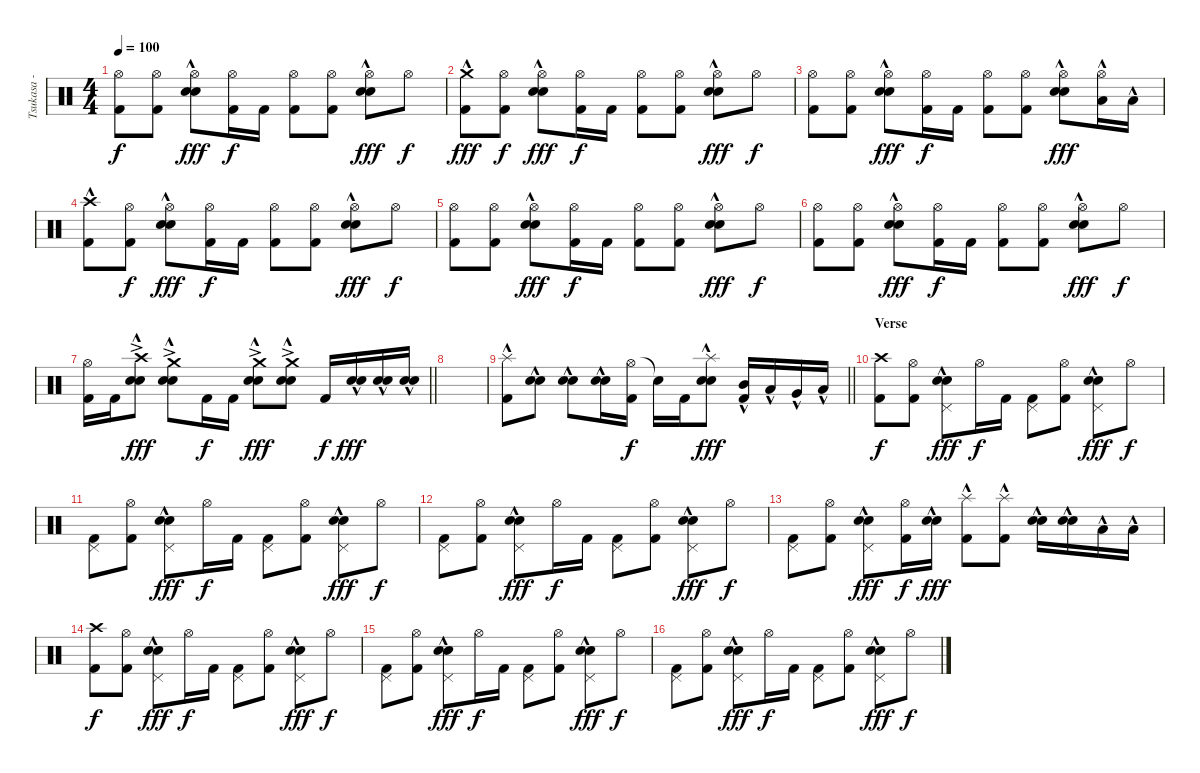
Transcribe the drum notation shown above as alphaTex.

\track ("Tsukasa - Drums" "Tsukasa - ") {instrument percussion}
\staff {score}
\articulation defaults
\ts (4 4)
\tempo 100
\clef neutral
\ks c
("Hi-Hat (open)" "Kick (hit) 2").8{dy f} ("Hi-Hat (open)" "Kick (hit) 2").8 ("Hi-Hat (open)" "Electric Snare (hit)"{hac} "Snare (hit) 2"{hac}).8{dy fff} ("Hi-Hat (open)" "Kick (hit) 2").16{dy f} "Kick (hit) 2".16 ("Hi-Hat (open)" "Kick (hit) 2").8 ("Hi-Hat (open)" "Kick (hit) 2").8 ("Hi-Hat (open)" "Electric Snare (hit)"{hac} "Snare (hit) 2"{hac}).8{dy fff} "Hi-Hat (open)".8{dy f} |
("Crash medium (hit)"{hac} "Kick (hit) 2").8{dy fff} ("Hi-Hat (open)" "Kick (hit) 2").8{dy f} ("Hi-Hat (open)" "Electric Snare (hit)"{hac} "Snare (hit) 2"{hac}).8{dy fff} ("Hi-Hat (open)" "Kick (hit) 2").16{dy f} "Kick (hit) 2".16 ("Hi-Hat (open)" "Kick (hit) 2").8 ("Hi-Hat (open)" "Kick (hit) 2").8 ("Hi-Hat (open)" "Electric Snare (hit)"{hac} "Snare (hit) 2"{hac}).8{dy fff} "Hi-Hat (open)".8{dy f} |
("Hi-Hat (open)" "Kick (hit) 2").8 ("Hi-Hat (open)" "Kick (hit) 2").8 ("Hi-Hat (open)" "Electric Snare (hit)"{hac} "Snare (hit) 2"{hac}).8{dy fff} ("Hi-Hat (open)" "Kick (hit) 2").16{dy f} "Kick (hit) 2".16 ("Hi-Hat (open)" "Kick (hit) 2").8 ("Hi-Hat (open)" "Kick (hit) 2").8 ("Hi-Hat (open)" "Electric Snare (hit)"{hac} "Snare (hit) 2"{hac}).8{dy fff} ("Hi-Hat (open)" "Low Tom (hit)"{hac}).16 "Low Tom (hit)"{hac}.16 |
("Crash high (hit)"{hac} "Kick (hit) 2").8 ("Hi-Hat (open)" "Kick (hit) 2").8{dy f} ("Hi-Hat (open)" "Electric Snare (hit)"{hac} "Snare (hit) 2"{hac}).8{dy fff} ("Hi-Hat (open)" "Kick (hit) 2").16{dy f} "Kick (hit) 2".16 ("Hi-Hat (open)" "Kick (hit) 2").8 ("Hi-Hat (open)" "Kick (hit) 2").8 ("Hi-Hat (open)" "Electric Snare (hit)"{hac} "Snare (hit) 2"{hac}).8{dy fff} "Hi-Hat (open)".8{dy f} |
("Hi-Hat (open)" "Kick (hit) 2").8 ("Hi-Hat (open)" "Kick (hit) 2").8 ("Hi-Hat (open)" "Electric Snare (hit)"{hac} "Snare (hit) 2"{hac}).8{dy fff} ("Hi-Hat (open)" "Kick (hit) 2").16{dy f} "Kick (hit) 2".16 ("Hi-Hat (open)" "Kick (hit) 2").8 ("Hi-Hat (open)" "Kick (hit) 2").8 ("Hi-Hat (open)" "Electric Snare (hit)"{hac} "Snare (hit) 2"{hac}).8{dy fff} "Hi-Hat (open)".8{dy f} |
("Hi-Hat (open)" "Kick (hit) 2").8 ("Hi-Hat (open)" "Kick (hit) 2").8 ("Hi-Hat (open)" "Electric Snare (hit)"{hac} "Snare (hit) 2"{hac}).8{dy fff} ("Hi-Hat (open)" "Kick (hit) 2").16{dy f} "Kick (hit) 2".16 ("Hi-Hat (open)" "Kick (hit) 2").8 ("Hi-Hat (open)" "Kick (hit) 2").8 ("Hi-Hat (open)" "Electric Snare (hit)"{hac} "Snare (hit) 2"{hac}).8{dy fff} "Hi-Hat (open)".8{dy f} |
\barLineRight lightlight
("Hi-Hat (open)" "Kick (hit) 2").16 "Kick (hit) 2".16 ("Crash high (hit)"{ac} "Electric Snare (hit)"{hac} "Snare (hit) 2"{hac}).8{dy fff} ("Crash medium (hit)"{ac} "Electric Snare (hit)"{hac} "Snare (hit) 2"{hac}).8 "Kick (hit) 2".16{dy f} "Kick (hit) 2".16 ("Crash medium (hit)"{ac} "Electric Snare (hit)"{hac} "Snare (hit) 2"{hac}).8{dy fff} ("Crash medium (hit)"{ac} "Electric Snare (hit)"{hac} "Snare (hit) 2"{hac}).8 "Kick (hit) 2".16{dy f} ("Electric Snare (hit)"{hac} "Snare (hit) 2"{hac}).16{dy fff} ("Electric Snare (hit)"{hac} "Snare (hit) 2"{hac}).16 ("Electric Snare (hit)"{hac} "Snare (hit) 2"{hac}).16 |
|
\barLineRight lightlight
("Splash (hit)"{hac} "Kick (hit) 2").8 ("Electric Snare (hit)"{hac} "Snare (hit) 2"{hac}).8 ("Electric Snare (hit)"{hac} "Snare (hit) 2"{hac}).8 ("Electric Snare (hit)"{hac} "Snare (hit) 2"{hac}).16 ("Hi-Hat (open)" "Kick (hit) 2").16{dy f} "Snare (hit)"{t}.16 "Kick (hit) 2".16 ("Splash (hit)"{hac} "Electric Snare (hit)"{hac} "Snare (hit) 2"{hac}).8{dy fff} ("Mid Tom (hit)"{hac} "Kick (hit) 2").16 "Low Tom (hit)"{hac}.16 "Very Low Tom (hit)"{hac}.16 "Low Floor Tom (hit)"{hac}.16 |
\section ("" "Verse")
("Crash high (hit)" "Kick (hit) 2").8{dy f} ("Hi-Hat (open)" "Kick (hit) 2").8 ("Pedal Hi-Hat (hit)" "Electric Snare (hit)"{hac} "Snare (hit) 2"{hac}).8{dy fff} "Hi-Hat (open)".16{dy f} "Kick (hit) 2".16 ("Pedal Hi-Hat (hit)" "Kick (hit) 2").8 ("Hi-Hat (open)" "Kick (hit) 2").8 ("Pedal Hi-Hat (hit)" "Electric Snare (hit)"{hac} "Snare (hit) 2"{hac}).8{dy fff} "Hi-Hat (open)".8{dy f} |
("Pedal Hi-Hat (hit)" "Kick (hit) 2").8 ("Hi-Hat (open)" "Kick (hit) 2").8 ("Pedal Hi-Hat (hit)" "Electric Snare (hit)"{hac} "Snare (hit) 2"{hac}).8{dy fff} "Hi-Hat (open)".16{dy f} "Kick (hit) 2".16 ("Pedal Hi-Hat (hit)" "Kick (hit) 2").8 ("Hi-Hat (open)" "Kick (hit) 2").8 ("Pedal Hi-Hat (hit)" "Electric Snare (hit)"{hac} "Snare (hit) 2"{hac}).8{dy fff} "Hi-Hat (open)".8{dy f} |
("Pedal Hi-Hat (hit)" "Kick (hit) 2").8 ("Hi-Hat (open)" "Kick (hit) 2").8 ("Pedal Hi-Hat (hit)" "Electric Snare (hit)"{hac} "Snare (hit) 2"{hac}).8{dy fff} "Hi-Hat (open)".16{dy f} "Kick (hit) 2".16 ("Pedal Hi-Hat (hit)" "Kick (hit) 2").8 ("Hi-Hat (open)" "Kick (hit) 2").8 ("Pedal Hi-Hat (hit)" "Electric Snare (hit)"{hac} "Snare (hit) 2"{hac}).8{dy fff} "Hi-Hat (open)".8{dy f} |
("Pedal Hi-Hat (hit)" "Kick (hit) 2").8 ("Hi-Hat (open)" "Kick (hit) 2").8 ("Pedal Hi-Hat (hit)" "Electric Snare (hit)"{hac} "Snare (hit) 2"{hac}).8{dy fff} ("Hi-Hat (open)" "Kick (hit) 2").16{dy f} ("Electric Snare (hit)"{hac} "Snare (hit) 2"{hac}).16{dy fff} ("Splash (hit)"{hac} "Kick (hit) 2").8 ("Splash (hit)"{hac} "Kick (hit) 2").8 ("Electric Snare (hit)"{hac} "Snare (hit) 2"{hac}).16 ("Electric Snare (hit)"{hac} "Snare (hit) 2"{hac}).16 "Low Tom (hit)"{hac}.16 "Low Tom (hit)"{hac}.16 |
("Crash high (hit)" "Kick (hit) 2").8{dy f} ("Hi-Hat (open)" "Kick (hit) 2").8 ("Pedal Hi-Hat (hit)" "Electric Snare (hit)"{hac} "Snare (hit) 2"{hac}).8{dy fff} "Hi-Hat (open)".16{dy f} "Kick (hit) 2".16 ("Pedal Hi-Hat (hit)" "Kick (hit) 2").8 ("Hi-Hat (open)" "Kick (hit) 2").8 ("Pedal Hi-Hat (hit)" "Electric Snare (hit)"{hac} "Snare (hit) 2"{hac}).8{dy fff} "Hi-Hat (open)".8{dy f} |
("Pedal Hi-Hat (hit)" "Kick (hit) 2").8 ("Hi-Hat (open)" "Kick (hit) 2").8 ("Pedal Hi-Hat (hit)" "Electric Snare (hit)"{hac} "Snare (hit) 2"{hac}).8{dy fff} "Hi-Hat (open)".16{dy f} "Kick (hit) 2".16 ("Pedal Hi-Hat (hit)" "Kick (hit) 2").8 ("Hi-Hat (open)" "Kick (hit) 2").8 ("Pedal Hi-Hat (hit)" "Electric Snare (hit)"{hac} "Snare (hit) 2"{hac}).8{dy fff} "Hi-Hat (open)".8{dy f} |
("Pedal Hi-Hat (hit)" "Kick (hit) 2").8 ("Hi-Hat (open)" "Kick (hit) 2").8 ("Pedal Hi-Hat (hit)" "Electric Snare (hit)"{hac} "Snare (hit) 2"{hac}).8{dy fff} "Hi-Hat (open)".16{dy f} "Kick (hit) 2".16 ("Pedal Hi-Hat (hit)" "Kick (hit) 2").8 ("Hi-Hat (open)" "Kick (hit) 2").8 ("Pedal Hi-Hat (hit)" "Electric Snare (hit)"{hac} "Snare (hit) 2"{hac}).8{dy fff} "Hi-Hat (open)".8{dy f}
